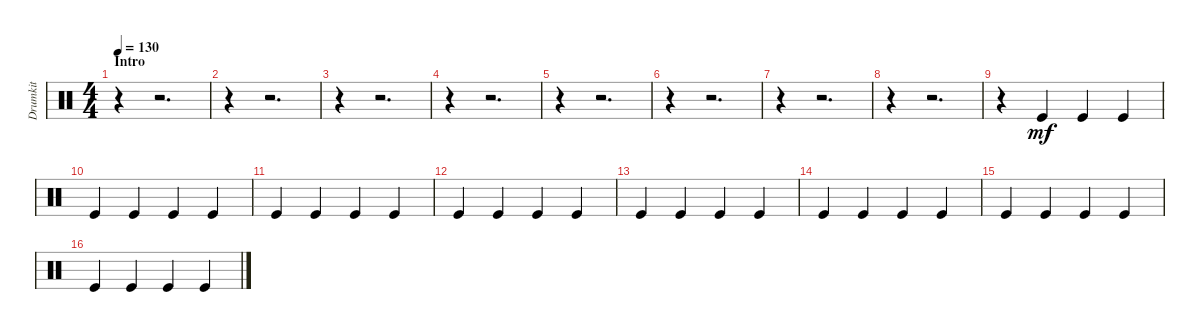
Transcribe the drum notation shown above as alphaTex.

\track ("Drumkit" "Drumkit") {instrument percussion}
\staff {score}
\articulation defaults
\ts (4 4)
\section ("" "Intro")
\tempo 130
\clef neutral
\ks c
r.4{dy mf} r.2{d} |
r.4 r.2{d} |
r.4 r.2{d} |
r.4 r.2{d} |
r.4 r.2{d} |
r.4 r.2{d} |
r.4 r.2{d} |
r.4 r.2{d} |
r.4 "Kick (hit)".4 "Kick (hit)".4 "Kick (hit)".4 |
"Kick (hit)".4 "Kick (hit)".4 "Kick (hit)".4 "Kick (hit)".4 |
"Kick (hit)".4 "Kick (hit)".4 "Kick (hit)".4 "Kick (hit)".4 |
"Kick (hit)".4 "Kick (hit)".4 "Kick (hit)".4 "Kick (hit)".4 |
"Kick (hit)".4 "Kick (hit)".4 "Kick (hit)".4 "Kick (hit)".4 |
"Kick (hit)".4 "Kick (hit)".4 "Kick (hit)".4 "Kick (hit)".4 |
"Kick (hit)".4 "Kick (hit)".4 "Kick (hit)".4 "Kick (hit)".4 |
"Kick (hit)".4 "Kick (hit)".4 "Kick (hit)".4 "Kick (hit)".4
